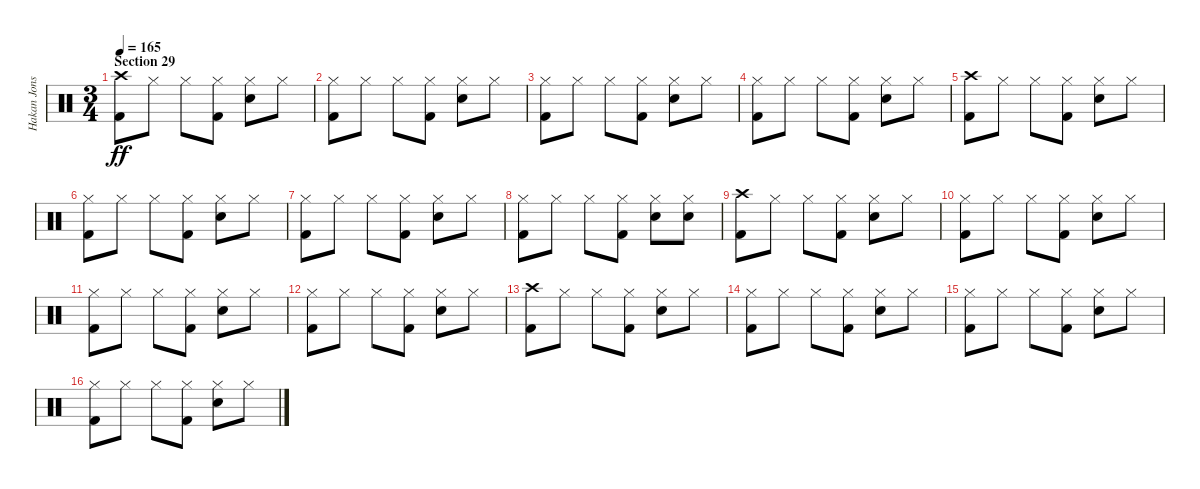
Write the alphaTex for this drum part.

\track ("Hakan Jonsson" "Hakan Jons") {instrument percussion}
\staff {score}
\articulation defaults
\ts (3 4)
\section ("" "Section 29")
\tempo 165
\clef neutral
\ks c
("Crash high (hit)" "Kick (hit) 2").8{dy ff} "Hi-Hat (closed)".8 "Hi-Hat (closed)".8 ("Hi-Hat (closed)" "Kick (hit) 2").8 ("Hi-Hat (closed)" "Electric Snare (hit)").8 "Hi-Hat (closed)".8 |
("Hi-Hat (closed)" "Kick (hit) 2").8 "Hi-Hat (closed)".8 "Hi-Hat (closed)".8 ("Hi-Hat (closed)" "Kick (hit) 2").8 ("Hi-Hat (closed)" "Electric Snare (hit)").8 "Hi-Hat (closed)".8 |
("Hi-Hat (closed)" "Kick (hit) 2").8 "Hi-Hat (closed)".8 "Hi-Hat (closed)".8 ("Hi-Hat (closed)" "Kick (hit) 2").8 ("Hi-Hat (closed)" "Electric Snare (hit)").8 "Hi-Hat (closed)".8 |
("Hi-Hat (closed)" "Kick (hit) 2").8 "Hi-Hat (closed)".8 "Hi-Hat (closed)".8 ("Hi-Hat (closed)" "Kick (hit) 2").8 ("Hi-Hat (closed)" "Electric Snare (hit)").8 "Hi-Hat (closed)".8 |
("Crash high (hit)" "Kick (hit) 2").8 "Hi-Hat (closed)".8 "Hi-Hat (closed)".8 ("Hi-Hat (closed)" "Kick (hit) 2").8 ("Hi-Hat (closed)" "Electric Snare (hit)").8 "Hi-Hat (closed)".8 |
("Hi-Hat (closed)" "Kick (hit) 2").8 "Hi-Hat (closed)".8 "Hi-Hat (closed)".8 ("Hi-Hat (closed)" "Kick (hit) 2").8 ("Hi-Hat (closed)" "Electric Snare (hit)").8 "Hi-Hat (closed)".8 |
("Hi-Hat (closed)" "Kick (hit) 2").8 "Hi-Hat (closed)".8 "Hi-Hat (closed)".8 ("Hi-Hat (closed)" "Kick (hit) 2").8 ("Hi-Hat (closed)" "Electric Snare (hit)").8 "Hi-Hat (closed)".8 |
("Hi-Hat (closed)" "Kick (hit) 2").8 "Hi-Hat (closed)".8 "Hi-Hat (closed)".8 ("Hi-Hat (closed)" "Kick (hit) 2").8 ("Hi-Hat (closed)" "Electric Snare (hit)").8 ("Hi-Hat (closed)" "Electric Snare (hit)").8 |
("Crash high (hit)" "Kick (hit) 2").8 "Hi-Hat (closed)".8 "Hi-Hat (closed)".8 ("Hi-Hat (closed)" "Kick (hit) 2").8 ("Hi-Hat (closed)" "Electric Snare (hit)").8 "Hi-Hat (closed)".8 |
("Hi-Hat (closed)" "Kick (hit) 2").8 "Hi-Hat (closed)".8 "Hi-Hat (closed)".8 ("Hi-Hat (closed)" "Kick (hit) 2").8 ("Hi-Hat (closed)" "Electric Snare (hit)").8 "Hi-Hat (closed)".8 |
("Hi-Hat (closed)" "Kick (hit) 2").8 "Hi-Hat (closed)".8 "Hi-Hat (closed)".8 ("Hi-Hat (closed)" "Kick (hit) 2").8 ("Hi-Hat (closed)" "Electric Snare (hit)").8 "Hi-Hat (closed)".8 |
("Hi-Hat (closed)" "Kick (hit) 2").8 "Hi-Hat (closed)".8 "Hi-Hat (closed)".8 ("Hi-Hat (closed)" "Kick (hit) 2").8 ("Hi-Hat (closed)" "Electric Snare (hit)").8 "Hi-Hat (closed)".8 |
("Crash high (hit)" "Kick (hit) 2").8 "Hi-Hat (closed)".8 "Hi-Hat (closed)".8 ("Hi-Hat (closed)" "Kick (hit) 2").8 ("Hi-Hat (closed)" "Electric Snare (hit)").8 "Hi-Hat (closed)".8 |
("Hi-Hat (closed)" "Kick (hit) 2").8 "Hi-Hat (closed)".8 "Hi-Hat (closed)".8 ("Hi-Hat (closed)" "Kick (hit) 2").8 ("Hi-Hat (closed)" "Electric Snare (hit)").8 "Hi-Hat (closed)".8 |
("Hi-Hat (closed)" "Kick (hit) 2").8 "Hi-Hat (closed)".8 "Hi-Hat (closed)".8 ("Hi-Hat (closed)" "Kick (hit) 2").8 ("Hi-Hat (closed)" "Electric Snare (hit)").8 "Hi-Hat (closed)".8 |
("Hi-Hat (closed)" "Kick (hit) 2").8 "Hi-Hat (closed)".8 "Hi-Hat (closed)".8 ("Hi-Hat (closed)" "Kick (hit) 2").8 ("Hi-Hat (closed)" "Electric Snare (hit)").8 "Hi-Hat (closed)".8
